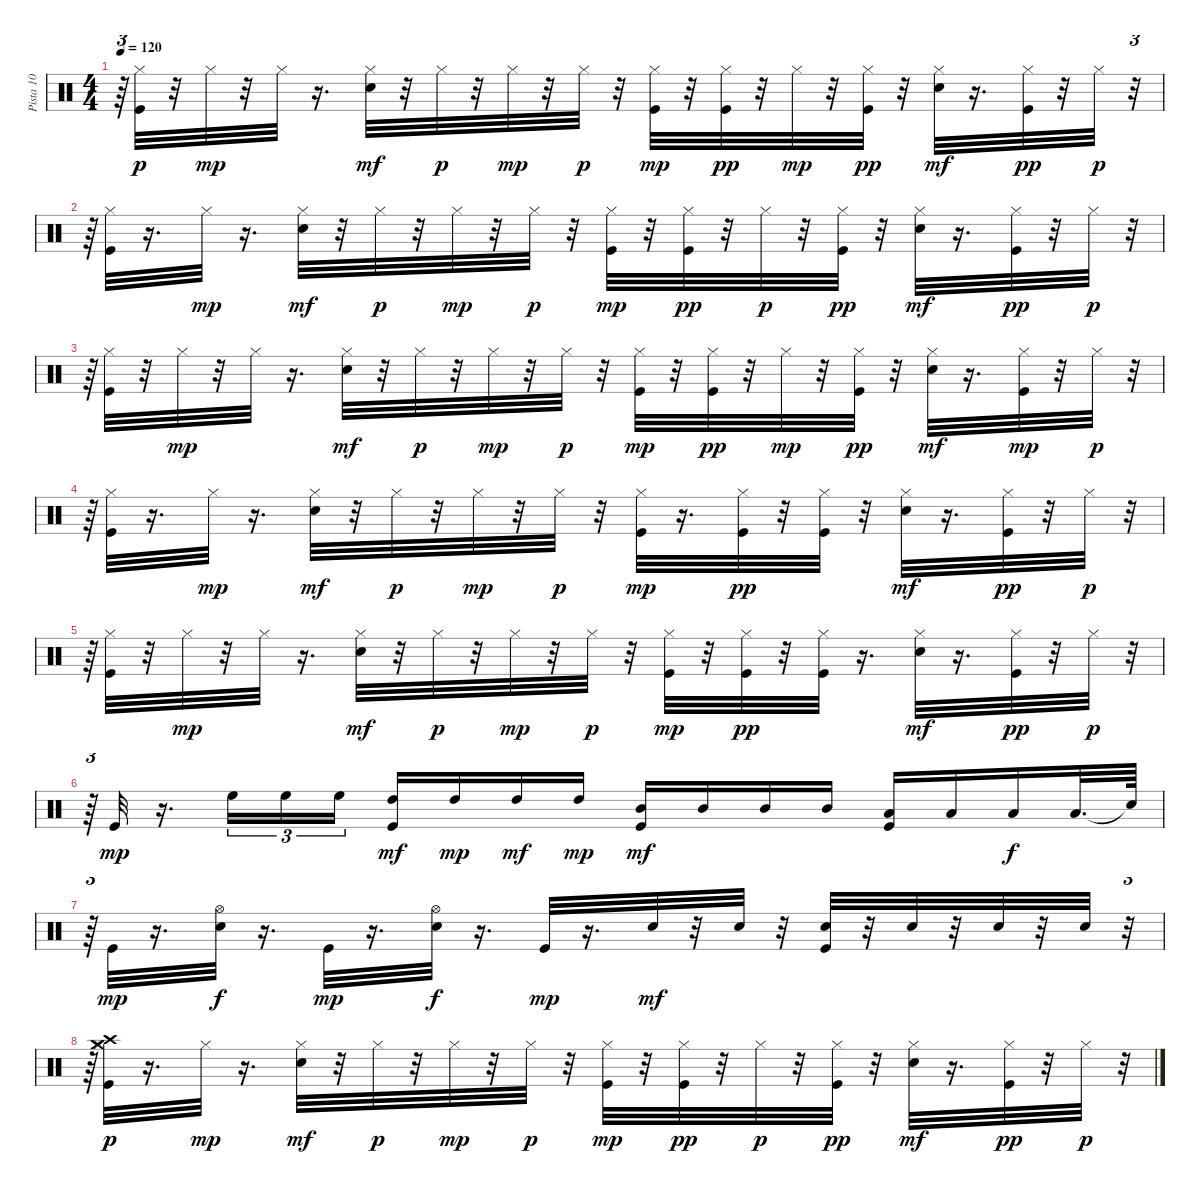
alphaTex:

\track ("Pista 10" "Pista 10") {instrument percussion}
\staff {score}
\articulation defaults
\ts (4 4)
\tempo 120
\clef neutral
\ks c
r.64{tu (3 2) dy p} ("Kick (hit)" "Hi-Hat (closed)").32 r.32 "Hi-Hat (closed)".32{dy mp} r.32 "Hi-Hat (closed)".32 r.16{d} ("Hi-Hat (closed)" "Snare (hit) 2").32{dy mf} r.32 "Hi-Hat (closed)".32{dy p} r.32 "Hi-Hat (closed)".32{dy mp} r.32 "Hi-Hat (closed)".32{dy p} r.32 ("Kick (hit)" "Hi-Hat (closed)").32{dy mp} r.32 ("Hi-Hat (closed)" "Kick (hit)").32{dy pp} r.32 "Hi-Hat (closed)".32{dy mp} r.32 ("Hi-Hat (closed)" "Kick (hit)").32{dy pp} r.32 ("Hi-Hat (closed)" "Snare (hit) 2").32{dy mf} r.16{d} ("Hi-Hat (closed)" "Kick (hit)").32{dy pp} r.32 "Hi-Hat (closed)".32{dy p} r.32{tu (3 2)} |
r.64{tu (3 2)} ("Kick (hit)" "Hi-Hat (closed)").32 r.16{d} "Hi-Hat (closed)".32{dy mp} r.16{d} ("Hi-Hat (closed)" "Snare (hit) 2").32{dy mf} r.32 "Hi-Hat (closed)".32{dy p} r.32 "Hi-Hat (closed)".32{dy mp} r.32 "Hi-Hat (closed)".32{dy p} r.32 ("Kick (hit)" "Hi-Hat (closed)").32{dy mp} r.32 ("Hi-Hat (closed)" "Kick (hit)").32{dy pp} r.32 "Hi-Hat (closed)".32{dy p} r.32 ("Hi-Hat (closed)" "Kick (hit)").32{dy pp} r.32 ("Hi-Hat (closed)" "Snare (hit) 2").32{dy mf} r.16{d} ("Hi-Hat (closed)" "Kick (hit)").32{dy pp} r.32 "Hi-Hat (closed)".32{dy p} r.32{tu (3 2)} |
r.64{tu (3 2)} ("Kick (hit)" "Hi-Hat (closed)").32 r.32 "Hi-Hat (closed)".32{dy mp} r.32 "Hi-Hat (closed)".32 r.16{d} ("Hi-Hat (closed)" "Snare (hit) 2").32{dy mf} r.32 "Hi-Hat (closed)".32{dy p} r.32 "Hi-Hat (closed)".32{dy mp} r.32 "Hi-Hat (closed)".32{dy p} r.32 ("Kick (hit)" "Hi-Hat (closed)").32{dy mp} r.32 ("Kick (hit)" "Hi-Hat (closed)").32{dy pp} r.32 "Hi-Hat (closed)".32{dy mp} r.32 ("Hi-Hat (closed)" "Kick (hit)").32{dy pp} r.32 ("Hi-Hat (closed)" "Snare (hit) 2").32{dy mf} r.16{d} ("Kick (hit)" "Hi-Hat (closed)").32{dy mp} r.32 "Hi-Hat (closed)".32{dy p} r.32{tu (3 2)} |
r.64{tu (3 2)} ("Kick (hit)" "Hi-Hat (closed)").32 r.16{d} "Hi-Hat (closed)".32{dy mp} r.16{d} ("Hi-Hat (closed)" "Snare (hit) 2").32{dy mf} r.32 "Hi-Hat (closed)".32{dy p} r.32 "Hi-Hat (closed)".32{dy mp} r.32 "Hi-Hat (closed)".32{dy p} r.32 ("Kick (hit)" "Hi-Hat (closed)").32{dy mp} r.16{d} ("Hi-Hat (closed)" "Kick (hit)").32{dy pp} r.32 ("Hi-Hat (closed)" "Kick (hit)").32 r.32 ("Hi-Hat (closed)" "Snare (hit) 2").32{dy mf} r.16{d} ("Hi-Hat (closed)" "Kick (hit)").32{dy pp} r.32 "Hi-Hat (closed)".32{dy p} r.32{tu (3 2)} |
r.64{tu (3 2)} ("Kick (hit)" "Hi-Hat (closed)").32 r.32 "Hi-Hat (closed)".32{dy mp} r.32 "Hi-Hat (closed)".32 r.16{d} ("Hi-Hat (closed)" "Snare (hit) 2").32{dy mf} r.32 "Hi-Hat (closed)".32{dy p} r.32 "Hi-Hat (closed)".32{dy mp} r.32 "Hi-Hat (closed)".32{dy p} r.32 ("Kick (hit)" "Hi-Hat (closed)").32{dy mp} r.32 ("Hi-Hat (closed)" "Kick (hit)").32{dy pp} r.32 ("Hi-Hat (closed)" "Kick (hit)").32 r.16{d} ("Hi-Hat (closed)" "Snare (hit) 2").32{dy mf} r.16{d} ("Hi-Hat (closed)" "Kick (hit)").32{dy pp} r.32 "Hi-Hat (closed)".32{dy p} r.32{tu (3 2)} |
r.64{tu (3 2)} "Kick (hit)".32{dy mp} r.16{d} "High Floor Tom (hit)".16{tu (3 2)} "High Floor Tom (hit)".16{tu (3 2)} "High Floor Tom (hit)".16{tu (3 2)} ("Kick (hit)" "High Tom (hit)").16{dy mf} "High Tom (hit)".16{dy mp} "High Tom (hit)".16{dy mf} "High Tom (hit)".16{dy mp} ("Kick (hit)" "Mid Tom (hit)").16{dy mf} "Mid Tom (hit)".16 "Mid Tom (hit)".16 "Mid Tom (hit)".16 ("Kick (hit)" "Low Tom (hit)").16 "Low Tom (hit)".16 "Low Tom (hit)".16{dy f} "Low Tom (hit)".32{d} "Snare (hit)"{t}.64 |
r.64{tu (3 2)} "Kick (hit)".32{dy mp} r.16{d} ("Hi-Hat (open)" "Snare (hit) 2").32{dy f} r.16{d} "Kick (hit)".32{dy mp} r.16{d} ("Hi-Hat (open)" "Snare (hit) 2").32{dy f} r.16{d} "Kick (hit)".32{dy mp} r.16{d} "Snare (hit) 2".32{dy mf} r.32 "Snare (hit) 2".32 r.32 ("Kick (hit)" "Snare (hit) 2").32 r.32 "Snare (hit) 2".32 r.32 "Snare (hit) 2".32 r.32 "Snare (hit) 2".32 r.32{tu (3 2)} |
r.64{tu (3 2)} ("Kick (hit)" "Hi-Hat (closed)" "Crash high (hit)" "Crash medium (hit)").32{dy p} r.16{d} "Hi-Hat (closed)".32{dy mp} r.16{d} ("Hi-Hat (closed)" "Snare (hit) 2").32{dy mf} r.32 "Hi-Hat (closed)".32{dy p} r.32 "Hi-Hat (closed)".32{dy mp} r.32 "Hi-Hat (closed)".32{dy p} r.32 ("Kick (hit)" "Hi-Hat (closed)").32{dy mp} r.32 ("Kick (hit)" "Hi-Hat (closed)").32{dy pp} r.32 "Hi-Hat (closed)".32{dy p} r.32 ("Kick (hit)" "Hi-Hat (closed)").32{dy pp} r.32 ("Hi-Hat (closed)" "Snare (hit) 2").32{dy mf} r.16{d} ("Hi-Hat (closed)" "Kick (hit)").32{dy pp} r.32 "Hi-Hat (closed)".32{dy p} r.32{tu (3 2)}
